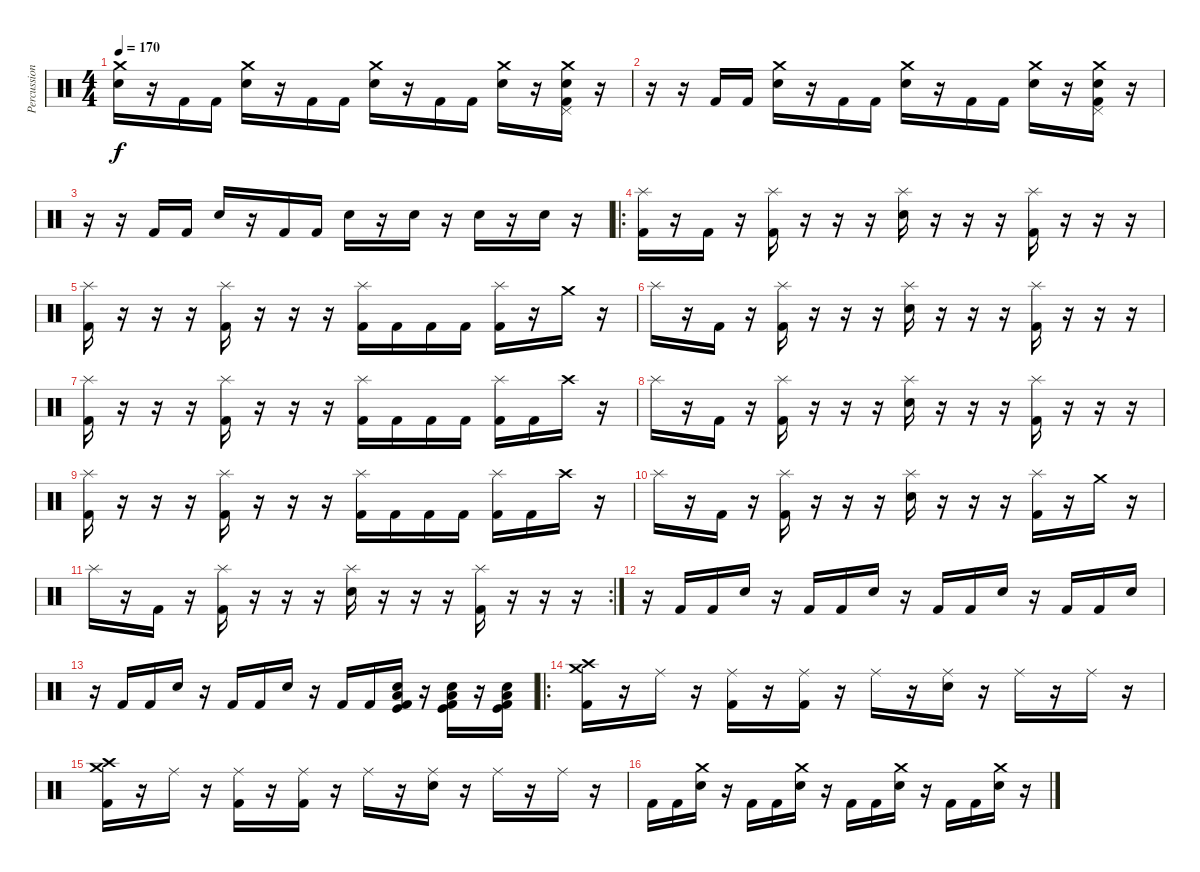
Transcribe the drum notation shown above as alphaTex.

\track ("Percussion" "Percussion") {instrument percussion}
\staff {score}
\articulation defaults
\ts (4 4)
\tempo 170
\clef neutral
\ks c
("Crash medium (hit)" "Electric Snare (hit)").16{dy f} r.16 "Kick (hit) 2".16 "Kick (hit) 2".16 ("Crash medium (hit)" "Electric Snare (hit)").16 r.16 "Kick (hit) 2".16 "Kick (hit) 2".16 ("Crash medium (hit)" "Electric Snare (hit)").16 r.16 "Kick (hit) 2".16 "Kick (hit) 2".16 ("Crash medium (hit)" "Electric Snare (hit)").16 r.16 ("Pedal Hi-Hat (hit)" "Crash medium (hit)" "Electric Snare (hit)" "Kick (hit) 2").16 r.16 |
r.16 r.16 "Kick (hit) 2".16 "Kick (hit) 2".16 ("Crash medium (hit)" "Electric Snare (hit)").16 r.16 "Kick (hit) 2".16 "Kick (hit) 2".16 ("Crash medium (hit)" "Electric Snare (hit)").16 r.16 "Kick (hit) 2".16 "Kick (hit) 2".16 ("Crash medium (hit)" "Electric Snare (hit)").16 r.16 ("Pedal Hi-Hat (hit)" "Crash medium (hit)" "Electric Snare (hit)" "Kick (hit) 2").16 r.16 |
r.16 r.16 "Kick (hit) 2".16 "Kick (hit) 2".16 "Electric Snare (hit)".16 r.16 "Kick (hit) 2".16 "Kick (hit) 2".16 "Electric Snare (hit)".16 r.16 "Electric Snare (hit)".16 r.16 "Electric Snare (hit)".16 r.16 "Electric Snare (hit)".16 r.16 |
\ro
("Splash (hit)" "Kick (hit) 2").16 r.16 "Kick (hit) 2".16 r.16 ("Splash (hit)" "Kick (hit) 2").16 r.16 r.16 r.16 ("Splash (hit)" "Electric Snare (hit)").16 r.16 r.16 r.16 ("Splash (hit)" "Kick (hit) 2").16 r.16 r.16 r.16 |
("Splash (hit)" "Kick (hit) 2").16 r.16 r.16 r.16 ("Splash (hit)" "Kick (hit) 2").16 r.16 r.16 r.16 ("Splash (hit)" "Kick (hit) 2").16 "Kick (hit) 2".16 "Kick (hit) 2".16 "Kick (hit) 2".16 ("Splash (hit)" "Kick (hit) 2").16 r.16 "Crash medium (hit)".16 r.16 |
"Splash (hit)".16 r.16 "Kick (hit) 2".16 r.16 ("Splash (hit)" "Kick (hit) 2").16 r.16 r.16 r.16 ("Splash (hit)" "Electric Snare (hit)").16 r.16 r.16 r.16 ("Splash (hit)" "Kick (hit) 2").16 r.16 r.16 r.16 |
("Splash (hit)" "Kick (hit) 2").16 r.16 r.16 r.16 ("Splash (hit)" "Kick (hit) 2").16 r.16 r.16 r.16 ("Splash (hit)" "Kick (hit) 2").16 "Kick (hit) 2".16 "Kick (hit) 2".16 "Kick (hit) 2".16 ("Splash (hit)" "Kick (hit) 2").16 "Kick (hit) 2".16 "Crash high (hit)".16 r.16 |
"Splash (hit)".16 r.16 "Kick (hit) 2".16 r.16 ("Splash (hit)" "Kick (hit) 2").16 r.16 r.16 r.16 ("Splash (hit)" "Electric Snare (hit)").16 r.16 r.16 r.16 ("Splash (hit)" "Kick (hit) 2").16 r.16 r.16 r.16 |
("Splash (hit)" "Kick (hit) 2").16 r.16 r.16 r.16 ("Splash (hit)" "Kick (hit) 2").16 r.16 r.16 r.16 ("Splash (hit)" "Kick (hit) 2").16 "Kick (hit) 2".16 "Kick (hit) 2".16 "Kick (hit) 2".16 ("Splash (hit)" "Kick (hit) 2").16 "Kick (hit) 2".16 "Crash high (hit)".16 r.16 |
"Splash (hit)".16 r.16 "Kick (hit) 2".16 r.16 ("Splash (hit)" "Kick (hit) 2").16 r.16 r.16 r.16 ("Splash (hit)" "Electric Snare (hit)").16 r.16 r.16 r.16 ("Splash (hit)" "Kick (hit) 2").16 r.16 "Crash medium (hit)".16 r.16 |
\rc 2 "Splash (hit)".16
r.16 "Kick (hit) 2".16 r.16 ("Splash (hit)" "Kick (hit) 2").16 r.16 r.16 r.16 ("Splash (hit)" "Electric Snare (hit)").16 r.16 r.16 r.16 ("Splash (hit)" "Kick (hit) 2").16 r.16 r.16 r.16 |
r.16 "Kick (hit) 2".16 "Kick (hit) 2".16 "Electric Snare (hit)".16 r.16 "Kick (hit) 2".16 "Kick (hit) 2".16 "Electric Snare (hit)".16 r.16 "Kick (hit) 2".16 "Kick (hit) 2".16 "Electric Snare (hit)".16 r.16 "Kick (hit) 2".16 "Kick (hit) 2".16 "Electric Snare (hit)".16 |
r.16 "Kick (hit) 2".16 "Kick (hit) 2".16 "Electric Snare (hit)".16 r.16 "Kick (hit) 2".16 "Kick (hit) 2".16 "Electric Snare (hit)".16 r.16 "Kick (hit) 2".16 "Kick (hit) 2".16 ("Kick (hit)" "Kick (hit) 2" "Electric Snare (hit)" "Low Floor Tom (hit)").16 r.16 ("Kick (hit)" "Kick (hit) 2" "Electric Snare (hit)" "Low Floor Tom (hit)").16 r.16 ("Kick (hit)" "Kick (hit) 2" "Electric Snare (hit)" "Low Floor Tom (hit)").16 |
\ro
("Crash medium (hit)" "Crash high (hit)" "Kick (hit) 2").16 r.16 "Ride (middle)".16 r.16 ("Ride (middle)" "Kick (hit) 2").16 r.16 ("Ride (middle)" "Kick (hit) 2").16 r.16 "Ride (middle)".16 r.16 ("Ride (middle)" "Electric Snare (hit)").16 r.16 "Ride (middle)".16 r.16 "Ride (middle)".16 r.16 |
("Crash medium (hit)" "Crash high (hit)" "Kick (hit) 2").16 r.16 "Ride (middle)".16 r.16 ("Ride (middle)" "Kick (hit) 2").16 r.16 ("Ride (middle)" "Kick (hit) 2").16 r.16 "Ride (middle)".16 r.16 ("Ride (middle)" "Electric Snare (hit)").16 r.16 "Ride (middle)".16 r.16 "Ride (middle)".16 r.16 |
"Kick (hit) 2".16 "Kick (hit) 2".16 ("Crash medium (hit)" "Electric Snare (hit)").16 r.16 "Kick (hit) 2".16 "Kick (hit) 2".16 ("Crash medium (hit)" "Electric Snare (hit)").16 r.16 "Kick (hit) 2".16 "Kick (hit) 2".16 ("Crash medium (hit)" "Electric Snare (hit)").16 r.16 "Kick (hit) 2".16 "Kick (hit) 2".16 ("Crash medium (hit)" "Electric Snare (hit)").16 r.16
